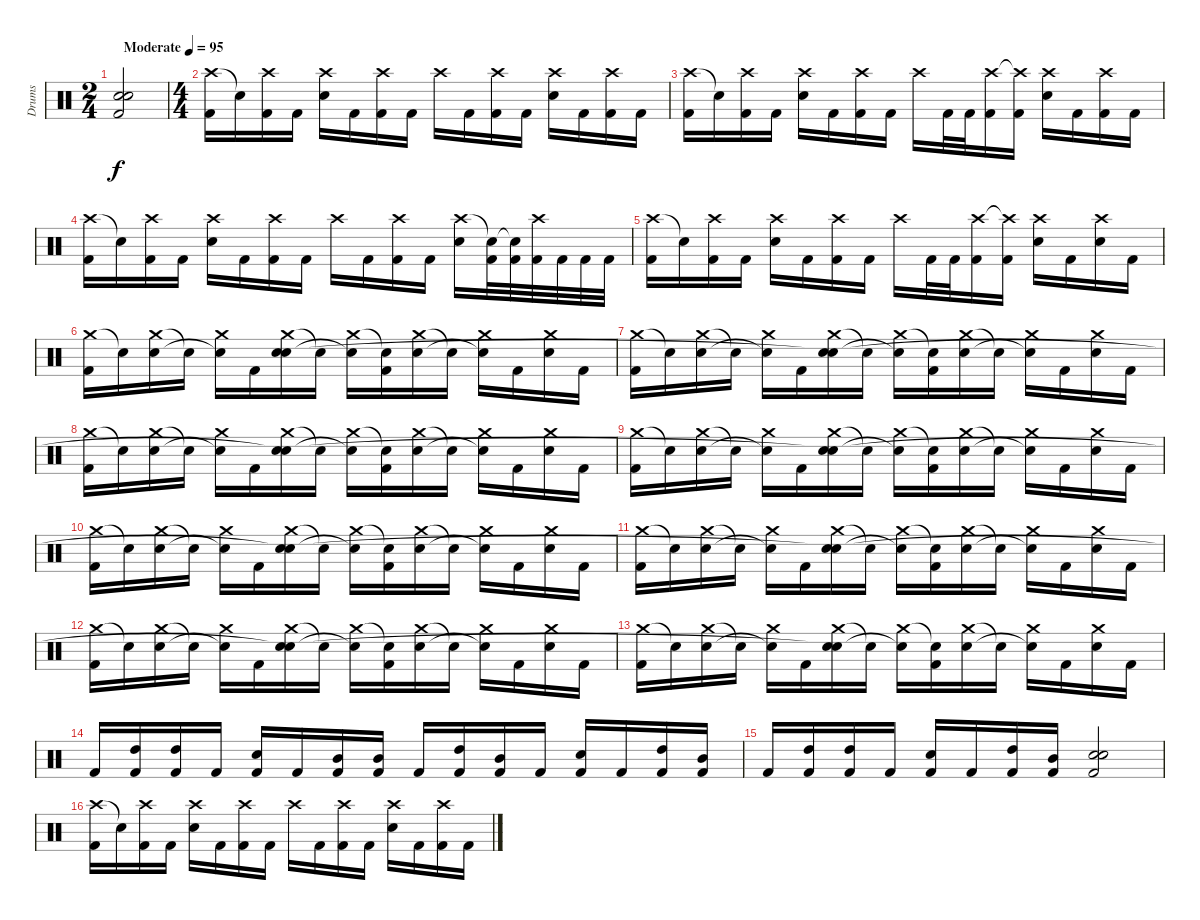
\track ("Drums" "Drums") {instrument percussion}
\staff {score}
\articulation defaults
\ts (2 4)
\tempo (95 "Moderate")
\clef neutral
\ks c
("Electric Snare (hit)" "Electric Snare (hit)" "Kick (hit) 2").2{dy f} |
\ts (4 4)
("Crash high (hit)" "Kick (hit) 2").16 "Snare (hit)"{t}.16 ("Crash high (hit)" "Kick (hit) 2").16 "Kick (hit) 2".16 ("Crash high (hit)" "Electric Snare (hit)").16 "Kick (hit) 2".16 ("Crash high (hit)" "Kick (hit) 2").16 "Kick (hit) 2".16 "Crash high (hit)".16 "Kick (hit) 2".16 ("Crash high (hit)" "Kick (hit) 2").16 "Kick (hit) 2".16 ("Crash high (hit)" "Electric Snare (hit)").16 "Kick (hit) 2".16 ("Crash high (hit)" "Kick (hit) 2").16 "Kick (hit) 2".16 |
("Crash high (hit)" "Kick (hit) 2").16 "Snare (hit)"{t}.16 ("Crash high (hit)" "Kick (hit) 2").16 "Kick (hit) 2".16 ("Crash high (hit)" "Electric Snare (hit)").16 "Kick (hit) 2".16 ("Crash high (hit)" "Kick (hit) 2").16 "Kick (hit) 2".16 "Crash high (hit)".16 "Kick (hit) 2".32 "Kick (hit) 2".32 ("Crash high (hit)" "Kick (hit) 2").16 ("Crash high (hit)"{t} "Kick (hit) 2").16 ("Crash high (hit)" "Electric Snare (hit)").16 "Kick (hit) 2".16 ("Crash high (hit)" "Kick (hit) 2").16 "Kick (hit) 2".16 |
("Crash high (hit)" "Kick (hit) 2").16 "Snare (hit)"{t}.16 ("Crash high (hit)" "Kick (hit) 2").16 "Kick (hit) 2".16 ("Crash high (hit)" "Electric Snare (hit)").16 "Kick (hit) 2".16 ("Crash high (hit)" "Kick (hit) 2").16 "Kick (hit) 2".16 "Crash high (hit)".16 "Kick (hit) 2".16 ("Crash high (hit)" "Kick (hit) 2").16 "Kick (hit) 2".16 ("Crash high (hit)" "Electric Snare (hit)").16 ("Snare (hit)"{t} "Kick (hit) 2").32 ("Snare (hit)"{t} "Kick (hit) 2").32 ("Crash high (hit)" "Kick (hit) 2").32 "Kick (hit) 2".32 "Kick (hit) 2".32 "Kick (hit) 2".32 |
("Crash high (hit)" "Kick (hit) 2").16 "Snare (hit)"{t}.16 ("Crash high (hit)" "Kick (hit) 2").16 "Kick (hit) 2".16 ("Crash high (hit)" "Electric Snare (hit)").16 "Kick (hit) 2".16 ("Crash high (hit)" "Kick (hit) 2").16 "Kick (hit) 2".16 "Crash high (hit)".16 "Kick (hit) 2".32 "Kick (hit) 2".32 ("Crash high (hit)" "Kick (hit) 2").16 ("Crash high (hit)"{t} "Kick (hit) 2").16 ("Crash high (hit)" "Electric Snare (hit)").16 "Kick (hit) 2".16 ("Crash high (hit)" "Electric Snare (hit)").16 "Kick (hit) 2".16 |
("Crash medium (hit)" "Kick (hit) 2").16 "Snare (hit)"{t}.16 ("Crash medium (hit)" "Electric Snare (hit)").16 "Snare (hit)"{t}.16 ("Crash medium (hit)" "Snare (hit)"{t}).16 "Kick (hit) 2".16 ("Crash medium (hit)" "Electric Snare (hit)" "Snare (hit)").16 "Electric Snare (hit)"{t}.16 ("Crash medium (hit)" "Snare (hit)"{t}).16 ("Snare (hit)"{t} "Kick (hit) 2").16 ("Crash medium (hit)" "Electric Snare (hit)").16 "Electric Snare (hit)"{t}.16 ("Crash medium (hit)" "Snare (hit)"{t}).16 "Kick (hit) 2".16 ("Crash medium (hit)" "Electric Snare (hit)").16 "Kick (hit) 2".16 |
("Crash medium (hit)" "Kick (hit) 2").16 "Snare (hit)"{t}.16 ("Crash medium (hit)" "Electric Snare (hit)").16 "Snare (hit)"{t}.16 ("Crash medium (hit)" "Snare (hit)"{t}).16 "Kick (hit) 2".16 ("Crash medium (hit)" "Electric Snare (hit)" "Snare (hit)"{t}).16 "Electric Snare (hit)"{t}.16 ("Crash medium (hit)" "Snare (hit)"{t}).16 ("Snare (hit)"{t} "Kick (hit) 2").16 ("Crash medium (hit)" "Electric Snare (hit)").16 "Electric Snare (hit)"{t}.16 ("Crash medium (hit)" "Snare (hit)"{t}).16 "Kick (hit) 2".16 ("Crash medium (hit)" "Electric Snare (hit)").16 "Kick (hit) 2".16 |
("Crash medium (hit)" "Kick (hit) 2").16 "Snare (hit)"{t}.16 ("Crash medium (hit)" "Electric Snare (hit)").16 "Snare (hit)"{t}.16 ("Crash medium (hit)" "Snare (hit)"{t}).16 "Kick (hit) 2".16 ("Crash medium (hit)" "Electric Snare (hit)" "Snare (hit)"{t}).16 "Electric Snare (hit)"{t}.16 ("Crash medium (hit)" "Snare (hit)"{t}).16 ("Snare (hit)"{t} "Kick (hit) 2").16 ("Crash medium (hit)" "Electric Snare (hit)").16 "Electric Snare (hit)"{t}.16 ("Crash medium (hit)" "Snare (hit)"{t}).16 "Kick (hit) 2".16 ("Crash medium (hit)" "Electric Snare (hit)").16 "Kick (hit) 2".16 |
("Crash medium (hit)" "Kick (hit) 2").16 "Snare (hit)"{t}.16 ("Crash medium (hit)" "Electric Snare (hit)").16 "Snare (hit)"{t}.16 ("Crash medium (hit)" "Snare (hit)"{t}).16 "Kick (hit) 2".16 ("Crash medium (hit)" "Electric Snare (hit)" "Snare (hit)"{t}).16 "Electric Snare (hit)"{t}.16 ("Crash medium (hit)" "Snare (hit)"{t}).16 ("Snare (hit)"{t} "Kick (hit) 2").16 ("Crash medium (hit)" "Electric Snare (hit)").16 "Electric Snare (hit)"{t}.16 ("Crash medium (hit)" "Snare (hit)"{t}).16 "Kick (hit) 2".16 ("Crash medium (hit)" "Electric Snare (hit)").16 "Kick (hit) 2".16 |
("Crash medium (hit)" "Kick (hit) 2").16 "Snare (hit)"{t}.16 ("Crash medium (hit)" "Electric Snare (hit)").16 "Snare (hit)"{t}.16 ("Crash medium (hit)" "Snare (hit)"{t}).16 "Kick (hit) 2".16 ("Crash medium (hit)" "Electric Snare (hit)" "Snare (hit)"{t}).16 "Electric Snare (hit)"{t}.16 ("Crash medium (hit)" "Snare (hit)"{t}).16 ("Snare (hit)"{t} "Kick (hit) 2").16 ("Crash medium (hit)" "Electric Snare (hit)").16 "Electric Snare (hit)"{t}.16 ("Crash medium (hit)" "Snare (hit)"{t}).16 "Kick (hit) 2".16 ("Crash medium (hit)" "Electric Snare (hit)").16 "Kick (hit) 2".16 |
("Crash medium (hit)" "Kick (hit) 2").16 "Snare (hit)"{t}.16 ("Crash medium (hit)" "Electric Snare (hit)").16 "Snare (hit)"{t}.16 ("Crash medium (hit)" "Snare (hit)"{t}).16 "Kick (hit) 2".16 ("Crash medium (hit)" "Electric Snare (hit)" "Snare (hit)"{t}).16 "Electric Snare (hit)"{t}.16 ("Crash medium (hit)" "Snare (hit)"{t}).16 ("Snare (hit)"{t} "Kick (hit) 2").16 ("Crash medium (hit)" "Electric Snare (hit)").16 "Electric Snare (hit)"{t}.16 ("Crash medium (hit)" "Snare (hit)"{t}).16 "Kick (hit) 2".16 ("Crash medium (hit)" "Electric Snare (hit)").16 "Kick (hit) 2".16 |
("Crash medium (hit)" "Kick (hit) 2").16 "Snare (hit)"{t}.16 ("Crash medium (hit)" "Electric Snare (hit)").16 "Snare (hit)"{t}.16 ("Crash medium (hit)" "Snare (hit)"{t}).16 "Kick (hit) 2".16 ("Crash medium (hit)" "Electric Snare (hit)" "Snare (hit)"{t}).16 "Electric Snare (hit)"{t}.16 ("Crash medium (hit)" "Snare (hit)"{t}).16 ("Snare (hit)"{t} "Kick (hit) 2").16 ("Crash medium (hit)" "Electric Snare (hit)").16 "Electric Snare (hit)"{t}.16 ("Crash medium (hit)" "Snare (hit)"{t}).16 "Kick (hit) 2".16 ("Crash medium (hit)" "Electric Snare (hit)").16 "Kick (hit) 2".16 |
("Crash medium (hit)" "Kick (hit) 2").16 "Snare (hit)"{t}.16 ("Crash medium (hit)" "Electric Snare (hit)").16 "Snare (hit)"{t}.16 ("Crash medium (hit)" "Snare (hit)"{t}).16 "Kick (hit) 2".16 ("Crash medium (hit)" "Electric Snare (hit)" "Snare (hit)"{t}).16 "Electric Snare (hit)"{t}.16 ("Crash medium (hit)" "Snare (hit)"{t}).16 ("Snare (hit)"{t} "Kick (hit) 2").16 ("Crash medium (hit)" "Electric Snare (hit)").16 "Electric Snare (hit)"{t}.16 ("Crash medium (hit)" "Snare (hit)"{t}).16 "Kick (hit) 2".16 ("Crash medium (hit)" "Electric Snare (hit)").16 "Kick (hit) 2".16 |
"Kick (hit) 2".16 ("High Tom (hit)" "Kick (hit) 2").16 ("High Tom (hit)" "Kick (hit) 2").16 "Kick (hit) 2".16 ("Electric Snare (hit)" "Kick (hit) 2").16 "Kick (hit) 2".16 ("Mid Tom (hit)" "Kick (hit) 2").16 ("Mid Tom (hit)" "Kick (hit) 2").16 "Kick (hit) 2".16 ("High Tom (hit)" "Kick (hit) 2").16 ("Mid Tom (hit)" "Kick (hit) 2").16 "Kick (hit) 2".16 ("Electric Snare (hit)" "Kick (hit) 2").16 "Kick (hit) 2".16 ("High Tom (hit)" "Kick (hit) 2").16 ("Mid Tom (hit)" "Kick (hit) 2").16 |
"Kick (hit) 2".16 ("High Tom (hit)" "Kick (hit) 2").16 ("High Tom (hit)" "Kick (hit) 2").16 "Kick (hit) 2".16 ("Electric Snare (hit)" "Kick (hit) 2").16 "Kick (hit) 2".16 ("High Tom (hit)" "Kick (hit) 2").16 ("Mid Tom (hit)" "Kick (hit) 2").16 ("Electric Snare (hit)" "Electric Snare (hit)" "Kick (hit) 2").2 |
("Crash high (hit)" "Kick (hit) 2").16 "Snare (hit)"{t}.16 ("Crash high (hit)" "Kick (hit) 2").16 "Kick (hit) 2".16 ("Crash high (hit)" "Electric Snare (hit)").16 "Kick (hit) 2".16 ("Crash high (hit)" "Kick (hit) 2").16 "Kick (hit) 2".16 "Crash high (hit)".16 "Kick (hit) 2".16 ("Crash high (hit)" "Kick (hit) 2").16 "Kick (hit) 2".16 ("Crash high (hit)" "Electric Snare (hit)").16 "Kick (hit) 2".16 ("Crash high (hit)" "Kick (hit) 2").16 "Kick (hit) 2".16
